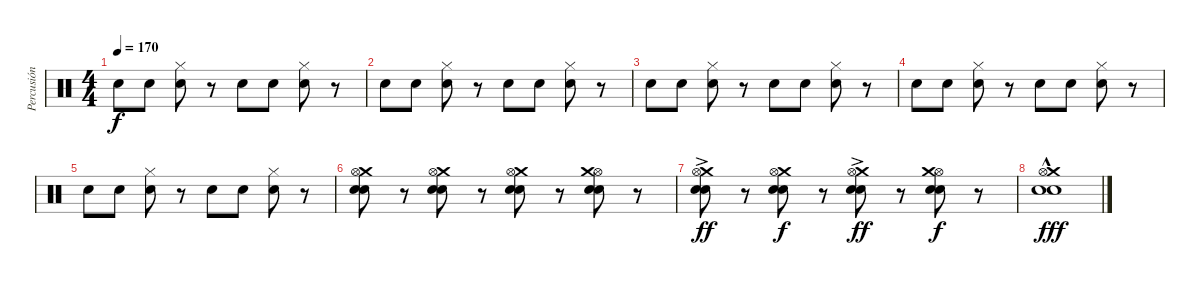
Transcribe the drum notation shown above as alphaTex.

\track ("Percusión" "Percusión") {instrument percussion}
\staff {score}
\articulation defaults
\ts (4 4)
\tempo 170
\clef neutral
\ks c "Electric Snare (hit)".8{dy f} "Electric Snare (hit)".8
("Hi-Hat (closed)" "Snare (hit) 2").8 r.8 "Electric Snare (hit)".8 "Electric Snare (hit)".8 ("Hi-Hat (closed)" "Snare (hit) 2").8 r.8 |
"Electric Snare (hit)".8 "Electric Snare (hit)".8 ("Hi-Hat (closed)" "Snare (hit) 2").8 r.8 "Electric Snare (hit)".8 "Electric Snare (hit)".8 ("Hi-Hat (closed)" "Snare (hit) 2").8 r.8 |
"Electric Snare (hit)".8 "Electric Snare (hit)".8 ("Hi-Hat (closed)" "Snare (hit) 2").8 r.8 "Electric Snare (hit)".8 "Electric Snare (hit)".8 ("Hi-Hat (closed)" "Snare (hit) 2").8 r.8 |
"Electric Snare (hit)".8 "Electric Snare (hit)".8 ("Hi-Hat (closed)" "Snare (hit) 2").8 r.8 "Electric Snare (hit)".8 "Electric Snare (hit)".8 ("Hi-Hat (closed)" "Snare (hit) 2").8 r.8 |
"Electric Snare (hit)".8 "Electric Snare (hit)".8 ("Hi-Hat (closed)" "Snare (hit) 2").8 r.8 "Electric Snare (hit)".8 "Electric Snare (hit)".8 ("Hi-Hat (closed)" "Snare (hit) 2").8 r.8 |
("Crash medium (hit)" "Hi-Hat (open)" "Snare (hit) 2" "Electric Snare (hit)").8 r.8 ("Crash medium (hit)" "Hi-Hat (open)" "Snare (hit) 2" "Electric Snare (hit)").8 r.8 ("Crash medium (hit)" "Hi-Hat (open)" "Electric Snare (hit)" "Snare (hit) 2").8 r.8 ("Hi-Hat (open)" "Snare (hit) 2" "Electric Snare (hit)" "Crash medium (hit)").8 r.8 |
("Crash medium (hit)" "Hi-Hat (open)"{ac} "Snare (hit) 2" "Electric Snare (hit)").8{dy ff} r.8 ("Crash medium (hit)" "Hi-Hat (open)" "Snare (hit) 2" "Electric Snare (hit)").8{dy f} r.8 ("Crash medium (hit)" "Hi-Hat (open)"{ac} "Electric Snare (hit)" "Snare (hit) 2").8{dy ff} r.8 ("Hi-Hat (open)" "Snare (hit) 2" "Electric Snare (hit)" "Crash medium (hit)").8{dy f} r.8 |
("Crash medium (hit)" "Hi-Hat (open)" "Electric Snare (hit)"{hac} "Snare (hit) 2").1{dy fff}
